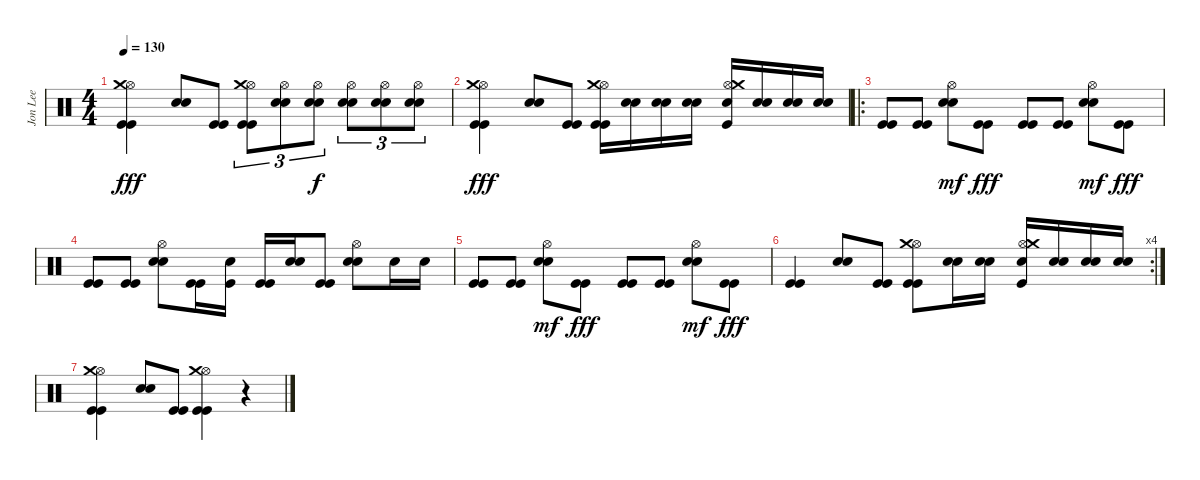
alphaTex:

\track ("Jon Lee" "Jon Lee") {instrument percussion}
\staff {score}
\articulation defaults
\ts (4 4)
\tempo 130
\clef neutral
\ks c
("Kick (hit)" "Kick (hit)" "Hi-Hat (open)" "Crash medium (hit)").4{dy fff} ("Electric Snare (hit)" "Snare (hit) 2").8 ("Kick (hit)" "Kick (hit)").8 ("Kick (hit)" "Kick (hit)" "Hi-Hat (open)" "Crash medium (hit)").8{tu (3 2)} ("Electric Snare (hit)" "Snare (hit) 2" "Hi-Hat (open)").8{tu (3 2)} ("Electric Snare (hit)" "Snare (hit) 2" "Hi-Hat (open)").8{tu (3 2) dy f} ("Electric Snare (hit)" "Snare (hit) 2" "Hi-Hat (open)").8{tu (3 2)} ("Electric Snare (hit)" "Snare (hit) 2" "Hi-Hat (open)").8{tu (3 2)} ("Electric Snare (hit)" "Snare (hit) 2" "Hi-Hat (open)").8{tu (3 2)} |
("Kick (hit)" "Kick (hit)" "Hi-Hat (open)" "Crash medium (hit)").4{dy fff} ("Electric Snare (hit)" "Snare (hit) 2").8 ("Kick (hit)" "Kick (hit)").8 ("Kick (hit)" "Kick (hit)" "Hi-Hat (open)" "Crash medium (hit)").16 ("Electric Snare (hit)" "Snare (hit) 2").16 ("Electric Snare (hit)" "Snare (hit) 2").16 ("Electric Snare (hit)" "Snare (hit) 2").16 ("Electric Snare (hit)" "Kick (hit)" "Hi-Hat (open)" "Crash medium (hit)").16 ("Electric Snare (hit)" "Snare (hit) 2").16 ("Electric Snare (hit)" "Snare (hit) 2").16 ("Electric Snare (hit)" "Snare (hit) 2").16 |
\ro
("Kick (hit)" "Kick (hit)").8 ("Kick (hit)" "Kick (hit)").8 ("Electric Snare (hit)" "Snare (hit) 2" "Hi-Hat (open)").8{dy mf} ("Kick (hit)" "Kick (hit)").8{dy fff} ("Kick (hit)" "Kick (hit)").8 ("Kick (hit)" "Kick (hit)").8 ("Electric Snare (hit)" "Snare (hit) 2" "Hi-Hat (open)").8{dy mf} ("Kick (hit)" "Kick (hit)").8{dy fff} |
("Kick (hit)" "Kick (hit)").8 ("Kick (hit)" "Kick (hit)").8 ("Electric Snare (hit)" "Snare (hit) 2" "Hi-Hat (open)").8 ("Kick (hit)" "Kick (hit)").16 ("Snare (hit) 2" "Kick (hit)").16 ("Kick (hit)" "Kick (hit)").16 ("Snare (hit) 2" "Electric Snare (hit)").16 ("Kick (hit)" "Kick (hit)").8 ("Snare (hit) 2" "Electric Snare (hit)" "Hi-Hat (open)").8 "Snare (hit) 2".16 "Snare (hit) 2".16 |
("Kick (hit)" "Kick (hit)").8 ("Kick (hit)" "Kick (hit)").8 ("Electric Snare (hit)" "Snare (hit) 2" "Hi-Hat (open)").8{dy mf} ("Kick (hit)" "Kick (hit)").8{dy fff} ("Kick (hit)" "Kick (hit)").8 ("Kick (hit)" "Kick (hit)").8 ("Electric Snare (hit)" "Snare (hit) 2" "Hi-Hat (open)").8{dy mf} ("Kick (hit)" "Kick (hit)").8{dy fff} |
\rc 4
("Kick (hit)" "Kick (hit)").4 ("Electric Snare (hit)" "Snare (hit) 2").8 ("Kick (hit)" "Kick (hit)").8 ("Kick (hit)" "Kick (hit)" "Hi-Hat (open)" "Crash medium (hit)").8 ("Electric Snare (hit)" "Snare (hit) 2").16 ("Electric Snare (hit)" "Snare (hit) 2").16 ("Electric Snare (hit)" "Kick (hit)" "Hi-Hat (open)" "Crash medium (hit)").16 ("Electric Snare (hit)" "Snare (hit) 2").16 ("Electric Snare (hit)" "Snare (hit) 2").16 ("Electric Snare (hit)" "Snare (hit) 2").16 |
("Kick (hit)" "Kick (hit)" "Hi-Hat (open)" "Crash medium (hit)").4 ("Electric Snare (hit)" "Snare (hit) 2").8 ("Kick (hit)" "Kick (hit)").8 ("Kick (hit)" "Kick (hit)" "Hi-Hat (open)" "Crash medium (hit)").4 r.4
